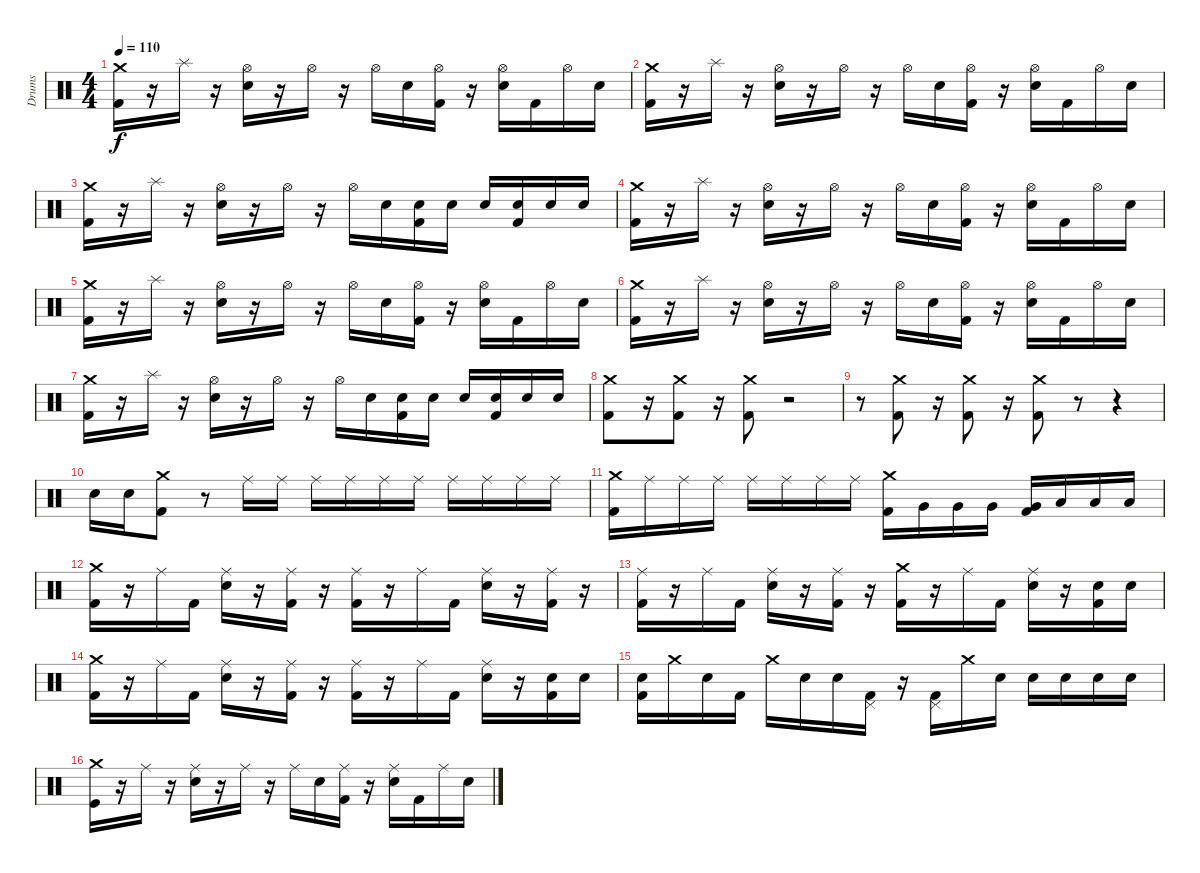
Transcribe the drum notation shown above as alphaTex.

\track ("Drums" "Drums") {instrument percussion}
\staff {score}
\articulation defaults
\ts (4 4)
\tempo 110
\clef neutral
\ks c
("Crash medium (hit)" "Kick (hit) 2").16{dy f} r.16 "Splash (hit)".16 r.16 ("Hi-Hat (open)" "Electric Snare (hit)").16 r.16 "Hi-Hat (open)".16 r.16 "Hi-Hat (open)".16 "Electric Snare (hit)".16 ("Hi-Hat (open)" "Kick (hit) 2").16 r.16 ("Hi-Hat (open)" "Electric Snare (hit)").16 "Kick (hit) 2".16 "Hi-Hat (open)".16 "Electric Snare (hit)".16 |
("Crash medium (hit)" "Kick (hit) 2").16 r.16 "Splash (hit)".16 r.16 ("Hi-Hat (open)" "Electric Snare (hit)").16 r.16 "Hi-Hat (open)".16 r.16 "Hi-Hat (open)".16 "Electric Snare (hit)".16 ("Hi-Hat (open)" "Kick (hit) 2").16 r.16 ("Hi-Hat (open)" "Electric Snare (hit)").16 "Kick (hit) 2".16 "Hi-Hat (open)".16 "Electric Snare (hit)".16 |
("Crash medium (hit)" "Kick (hit) 2").16 r.16 "Splash (hit)".16 r.16 ("Hi-Hat (open)" "Electric Snare (hit)").16 r.16 "Hi-Hat (open)".16 r.16 "Hi-Hat (open)".16 "Electric Snare (hit)".16 ("Electric Snare (hit)" "Kick (hit) 2").16 "Electric Snare (hit)".16 "Electric Snare (hit)".16 ("Electric Snare (hit)" "Kick (hit) 2").16 "Electric Snare (hit)".16 "Electric Snare (hit)".16 |
("Crash medium (hit)" "Kick (hit) 2").16 r.16 "Splash (hit)".16 r.16 ("Hi-Hat (open)" "Electric Snare (hit)").16 r.16 "Hi-Hat (open)".16 r.16 "Hi-Hat (open)".16 "Electric Snare (hit)".16 ("Hi-Hat (open)" "Kick (hit) 2").16 r.16 ("Hi-Hat (open)" "Electric Snare (hit)").16 "Kick (hit) 2".16 "Hi-Hat (open)".16 "Electric Snare (hit)".16 |
("Crash medium (hit)" "Kick (hit) 2").16 r.16 "Splash (hit)".16 r.16 ("Hi-Hat (open)" "Electric Snare (hit)").16 r.16 "Hi-Hat (open)".16 r.16 "Hi-Hat (open)".16 "Electric Snare (hit)".16 ("Hi-Hat (open)" "Kick (hit) 2").16 r.16 ("Hi-Hat (open)" "Electric Snare (hit)").16 "Kick (hit) 2".16 "Hi-Hat (open)".16 "Electric Snare (hit)".16 |
("Crash medium (hit)" "Kick (hit) 2").16 r.16 "Splash (hit)".16 r.16 ("Hi-Hat (open)" "Electric Snare (hit)").16 r.16 "Hi-Hat (open)".16 r.16 "Hi-Hat (open)".16 "Electric Snare (hit)".16 ("Hi-Hat (open)" "Kick (hit) 2").16 r.16 ("Hi-Hat (open)" "Electric Snare (hit)").16 "Kick (hit) 2".16 "Hi-Hat (open)".16 "Electric Snare (hit)".16 |
("Crash medium (hit)" "Kick (hit) 2").16 r.16 "Splash (hit)".16 r.16 ("Hi-Hat (open)" "Electric Snare (hit)").16 r.16 "Hi-Hat (open)".16 r.16 "Hi-Hat (open)".16 "Electric Snare (hit)".16 ("Electric Snare (hit)" "Kick (hit) 2").16 "Electric Snare (hit)".16 "Electric Snare (hit)".16 ("Electric Snare (hit)" "Kick (hit) 2").16 "Electric Snare (hit)".16 "Electric Snare (hit)".16 |
("Crash medium (hit)" "Kick (hit) 2").8 r.16 ("Crash medium (hit)" "Kick (hit) 2").8 r.16 ("Crash medium (hit)" "Kick (hit) 2").8 r.2 |
r.8 ("Crash medium (hit)" "Kick (hit) 2").8 r.16 ("Crash medium (hit)" "Kick (hit) 2").8 r.16 ("Crash medium (hit)" "Kick (hit) 2").8 r.8 r.4 |
"Electric Snare (hit)".16 "Electric Snare (hit)".16 ("Crash medium (hit)" "Kick (hit) 2").8 r.8 "Ride (middle)".16 "Ride (middle)".16 "Ride (middle)".16 "Ride (middle)".16 "Ride (middle)".16 "Ride (middle)".16 "Ride (middle)".16 "Ride (middle)".16 "Ride (middle)".16 "Ride (middle)".16 |
("Crash medium (hit)" "Kick (hit) 2").16 "Ride (middle)".16 "Ride (middle)".16 "Ride (middle)".16 "Ride (middle)".16 "Ride (middle)".16 "Ride (middle)".16 "Ride (middle)".16 ("Crash medium (hit)" "Kick (hit) 2").16 "Very Low Tom (hit)".16 "Very Low Tom (hit)".16 "Very Low Tom (hit)".16 ("Very Low Tom (hit)" "Kick (hit) 2").16 "Low Floor Tom (hit)".16 "Low Floor Tom (hit)".16 "Low Floor Tom (hit)".16 |
("Crash medium (hit)" "Kick (hit) 2").16 r.16 "Ride (middle)".16 "Kick (hit) 2".16 ("Ride (middle)" "Electric Snare (hit)").16 r.16 ("Ride (middle)" "Kick (hit) 2").16 r.16 ("Ride (middle)" "Kick (hit) 2").16 r.16 "Ride (middle)".16 "Kick (hit) 2".16 ("Ride (middle)" "Electric Snare (hit)").16 r.16 ("Ride (middle)" "Kick (hit) 2").16 r.16 |
("Ride (middle)" "Kick (hit) 2").16 r.16 "Ride (middle)".16 "Kick (hit) 2".16 ("Ride (middle)" "Electric Snare (hit)").16 r.16 ("Ride (middle)" "Kick (hit) 2").16 r.16 ("Crash medium (hit)" "Kick (hit) 2").16 r.16 "Ride (middle)".16 "Kick (hit) 2".16 ("Ride (middle)" "Electric Snare (hit)").16 r.16 ("Electric Snare (hit)" "Kick (hit) 2").16 "Electric Snare (hit)".16 |
("Crash medium (hit)" "Kick (hit) 2").16 r.16 "Ride (middle)".16 "Kick (hit) 2".16 ("Ride (middle)" "Electric Snare (hit)").16 r.16 ("Ride (middle)" "Kick (hit) 2").16 r.16 ("Ride (middle)" "Kick (hit) 2").16 r.16 "Ride (middle)".16 "Kick (hit) 2".16 ("Ride (middle)" "Electric Snare (hit)").16 r.16 ("Electric Snare (hit)" "Kick (hit) 2").16 "Electric Snare (hit)".16 |
("Electric Snare (hit)" "Kick (hit) 2").16 "Crash medium (hit)".16 "Electric Snare (hit)".16 "Kick (hit) 2".16 "Crash medium (hit)".16 "Electric Snare (hit)".16 "Electric Snare (hit)".16 ("Pedal Hi-Hat (hit)" "Kick (hit) 2").16 r.16 ("Pedal Hi-Hat (hit)" "Kick (hit) 2").16 "Crash medium (hit)".16 "Electric Snare (hit)".16 "Electric Snare (hit)".16 "Electric Snare (hit)".16 "Electric Snare (hit)".16 "Electric Snare (hit)".16 |
("Crash medium (hit)" "Kick (hit)").16 r.16 "Ride (middle)".16 r.16 ("Ride (middle)" "Electric Snare (hit)").16 r.16 "Ride (middle)".16 r.16 "Ride (middle)".16 "Electric Snare (hit)".16 ("Ride (middle)" "Kick (hit) 2").16 r.16 ("Ride (middle)" "Electric Snare (hit)").16 "Kick (hit) 2".16 "Ride (middle)".16 "Electric Snare (hit)".16
